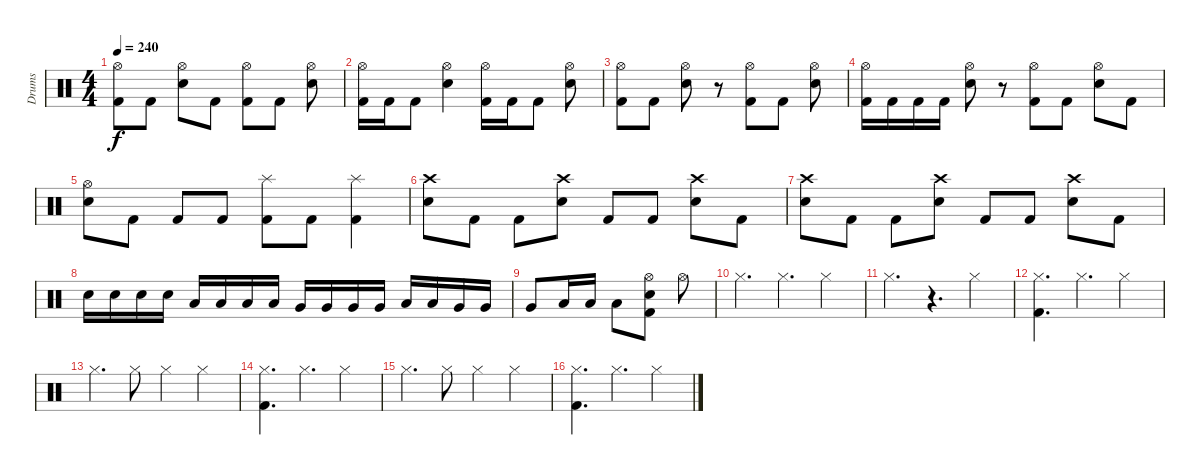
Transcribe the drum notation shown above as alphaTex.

\track ("Drums" "Drums") {instrument percussion}
\staff {score}
\articulation defaults
\ts (4 4)
\tempo 240
\clef neutral
\ks c
("Hi-Hat (open)" "Kick (hit) 2").8{dy f} "Kick (hit) 2".8 ("Hi-Hat (open)" "Electric Snare (hit)").8 "Kick (hit) 2".8 ("Hi-Hat (open)" "Kick (hit) 2").8 "Kick (hit) 2".8 ("Hi-Hat (open)" "Electric Snare (hit)").8 |
("Hi-Hat (open)" "Kick (hit) 2").16 "Kick (hit) 2".16 "Kick (hit) 2".8 ("Hi-Hat (open)" "Electric Snare (hit)").4 ("Hi-Hat (open)" "Kick (hit) 2").16 "Kick (hit) 2".16 "Kick (hit) 2".8 ("Hi-Hat (open)" "Electric Snare (hit)").8 |
("Hi-Hat (open)" "Kick (hit) 2").8 "Kick (hit) 2".8 ("Hi-Hat (open)" "Electric Snare (hit)").8 r.8 ("Hi-Hat (open)" "Kick (hit) 2").8 "Kick (hit) 2".8 ("Hi-Hat (open)" "Electric Snare (hit)").8 |
("Hi-Hat (open)" "Kick (hit) 2").16 "Kick (hit) 2".16 "Kick (hit) 2".16 "Kick (hit) 2".16 ("Hi-Hat (open)" "Electric Snare (hit)").8 r.8 ("Hi-Hat (open)" "Kick (hit) 2").8 "Kick (hit) 2".8 ("Hi-Hat (open)" "Electric Snare (hit)").8 "Kick (hit) 2".8 |
("Hi-Hat (open)" "Electric Snare (hit)").8 "Kick (hit) 2".8 "Kick (hit) 2".8 "Kick (hit) 2".8 ("Splash (hit)" "Kick (hit) 2").8 "Kick (hit) 2".8 ("Splash (hit)" "Kick (hit) 2").4 |
("Crash high (hit)" "Electric Snare (hit)").8 "Kick (hit) 2".8 "Kick (hit) 2".8 ("Crash high (hit)" "Electric Snare (hit)").8 "Kick (hit) 2".8 "Kick (hit) 2".8 ("Crash high (hit)" "Electric Snare (hit)").8 "Kick (hit) 2".8 |
("Crash high (hit)" "Electric Snare (hit)").8 "Kick (hit) 2".8 "Kick (hit) 2".8 ("Crash high (hit)" "Electric Snare (hit)").8 "Kick (hit) 2".8 "Kick (hit) 2".8 ("Crash high (hit)" "Electric Snare (hit)").8 "Kick (hit) 2".8 |
"Electric Snare (hit)".16 "Electric Snare (hit)".16 "Electric Snare (hit)".16 "Electric Snare (hit)".16 "Low Tom (hit)".16 "Low Tom (hit)".16 "Low Tom (hit)".16 "Low Tom (hit)".16 "Very Low Tom (hit)".16 "Very Low Tom (hit)".16 "Very Low Tom (hit)".16 "Very Low Tom (hit)".16 "Low Floor Tom (hit)".16 "Low Floor Tom (hit)".16 "Very Low Tom (hit)".16 "Very Low Tom (hit)".16 |
"Very Low Tom (hit)".8 "Low Floor Tom (hit)".16 "Low Floor Tom (hit)".16 "Low Floor Tom (hit)".8 ("Hi-Hat (open)" "Electric Snare (hit)" "Kick (hit) 2").8 "Hi-Hat (open)".8 |
"Hi-Hat (closed)".4{d} "Hi-Hat (closed)".4{d} "Hi-Hat (closed)".4 |
"Hi-Hat (closed)".4{d} r.4{d} "Hi-Hat (closed)".4 |
("Hi-Hat (closed)" "Kick (hit) 2").4{d} "Hi-Hat (closed)".4{d} "Hi-Hat (closed)".4 |
"Hi-Hat (closed)".4{d} "Hi-Hat (closed)".8 "Hi-Hat (closed)".4 "Hi-Hat (closed)".4 |
("Hi-Hat (closed)" "Kick (hit) 2").4{d} "Hi-Hat (closed)".4{d} "Hi-Hat (closed)".4 |
"Hi-Hat (closed)".4{d} "Hi-Hat (closed)".8 "Hi-Hat (closed)".4 "Hi-Hat (closed)".4 |
("Hi-Hat (closed)" "Kick (hit) 2").4{d} "Hi-Hat (closed)".4{d} "Hi-Hat (closed)".4
